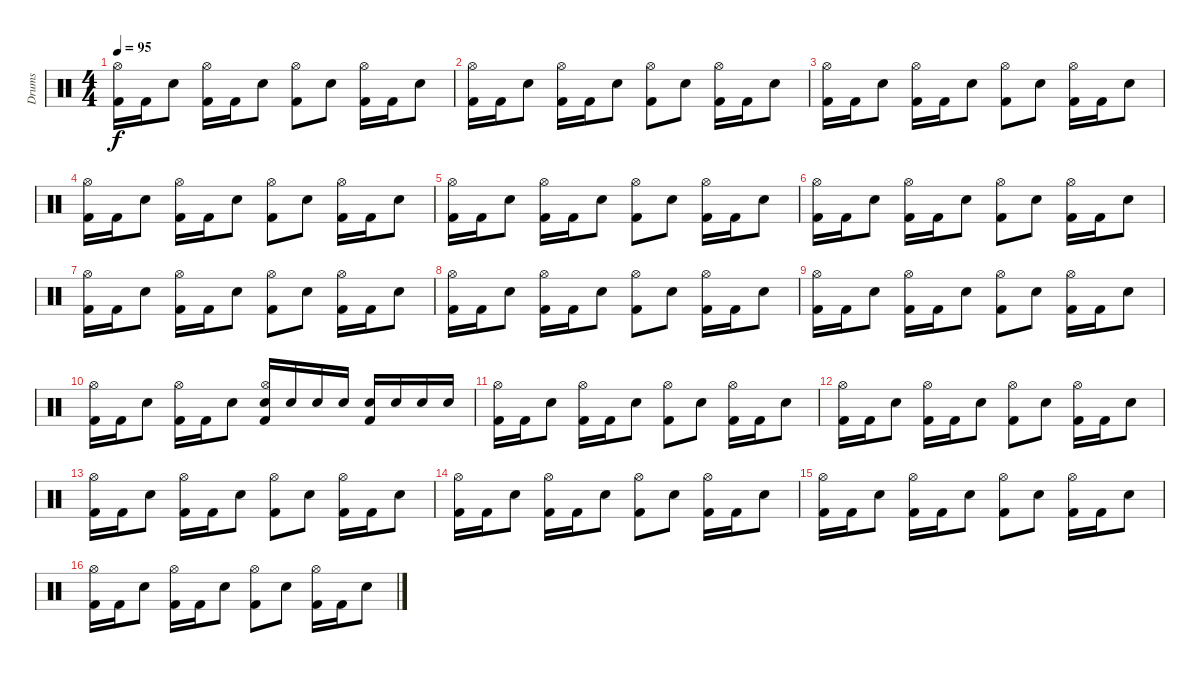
\track ("Drums" "Drums") {instrument percussion}
\staff {score}
\articulation defaults
\ts (4 4)
\tempo 95
\clef neutral
\ks c
("Kick (hit) 2" "Hi-Hat (open)").16{dy f} "Kick (hit) 2".16 "Electric Snare (hit)".8 ("Kick (hit) 2" "Hi-Hat (open)").16 "Kick (hit) 2".16 "Electric Snare (hit)".8 ("Kick (hit) 2" "Hi-Hat (open)").8 "Electric Snare (hit)".8 ("Kick (hit) 2" "Hi-Hat (open)").16 "Kick (hit) 2".16 "Electric Snare (hit)".8 |
("Kick (hit) 2" "Hi-Hat (open)").16 "Kick (hit) 2".16 "Electric Snare (hit)".8 ("Kick (hit) 2" "Hi-Hat (open)").16 "Kick (hit) 2".16 "Electric Snare (hit)".8 ("Kick (hit) 2" "Hi-Hat (open)").8 "Electric Snare (hit)".8 ("Kick (hit) 2" "Hi-Hat (open)").16 "Kick (hit) 2".16 "Electric Snare (hit)".8 |
("Kick (hit) 2" "Hi-Hat (open)").16 "Kick (hit) 2".16 "Electric Snare (hit)".8 ("Kick (hit) 2" "Hi-Hat (open)").16 "Kick (hit) 2".16 "Electric Snare (hit)".8 ("Kick (hit) 2" "Hi-Hat (open)").8 "Electric Snare (hit)".8 ("Kick (hit) 2" "Hi-Hat (open)").16 "Kick (hit) 2".16 "Electric Snare (hit)".8 |
("Kick (hit) 2" "Hi-Hat (open)").16 "Kick (hit) 2".16 "Electric Snare (hit)".8 ("Kick (hit) 2" "Hi-Hat (open)").16 "Kick (hit) 2".16 "Electric Snare (hit)".8 ("Kick (hit) 2" "Hi-Hat (open)").8 "Electric Snare (hit)".8 ("Kick (hit) 2" "Hi-Hat (open)").16 "Kick (hit) 2".16 "Electric Snare (hit)".8 |
("Kick (hit) 2" "Hi-Hat (open)").16 "Kick (hit) 2".16 "Electric Snare (hit)".8 ("Kick (hit) 2" "Hi-Hat (open)").16 "Kick (hit) 2".16 "Electric Snare (hit)".8 ("Kick (hit) 2" "Hi-Hat (open)").8 "Electric Snare (hit)".8 ("Kick (hit) 2" "Hi-Hat (open)").16 "Kick (hit) 2".16 "Electric Snare (hit)".8 |
("Kick (hit) 2" "Hi-Hat (open)").16 "Kick (hit) 2".16 "Electric Snare (hit)".8 ("Kick (hit) 2" "Hi-Hat (open)").16 "Kick (hit) 2".16 "Electric Snare (hit)".8 ("Kick (hit) 2" "Hi-Hat (open)").8 "Electric Snare (hit)".8 ("Kick (hit) 2" "Hi-Hat (open)").16 "Kick (hit) 2".16 "Electric Snare (hit)".8 |
("Kick (hit) 2" "Hi-Hat (open)").16 "Kick (hit) 2".16 "Electric Snare (hit)".8 ("Kick (hit) 2" "Hi-Hat (open)").16 "Kick (hit) 2".16 "Electric Snare (hit)".8 ("Kick (hit) 2" "Hi-Hat (open)").8 "Electric Snare (hit)".8 ("Kick (hit) 2" "Hi-Hat (open)").16 "Kick (hit) 2".16 "Electric Snare (hit)".8 |
("Kick (hit) 2" "Hi-Hat (open)").16 "Kick (hit) 2".16 "Electric Snare (hit)".8 ("Kick (hit) 2" "Hi-Hat (open)").16 "Kick (hit) 2".16 "Electric Snare (hit)".8 ("Kick (hit) 2" "Hi-Hat (open)").8 "Electric Snare (hit)".8 ("Kick (hit) 2" "Hi-Hat (open)").16 "Kick (hit) 2".16 "Electric Snare (hit)".8 |
("Kick (hit) 2" "Hi-Hat (open)").16 "Kick (hit) 2".16 "Electric Snare (hit)".8 ("Kick (hit) 2" "Hi-Hat (open)").16 "Kick (hit) 2".16 "Electric Snare (hit)".8 ("Kick (hit) 2" "Hi-Hat (open)").8 "Electric Snare (hit)".8 ("Kick (hit) 2" "Hi-Hat (open)").16 "Kick (hit) 2".16 "Electric Snare (hit)".8 |
("Kick (hit) 2" "Hi-Hat (open)").16 "Kick (hit) 2".16 "Electric Snare (hit)".8 ("Kick (hit) 2" "Hi-Hat (open)").16 "Kick (hit) 2".16 "Electric Snare (hit)".8 ("Kick (hit) 2" "Electric Snare (hit)" "Hi-Hat (open)").16 "Electric Snare (hit)".16 "Electric Snare (hit)".16 "Electric Snare (hit)".16 ("Kick (hit) 2" "Electric Snare (hit)").16 "Electric Snare (hit)".16 "Electric Snare (hit)".16 "Electric Snare (hit)".16 |
("Kick (hit) 2" "Hi-Hat (open)").16 "Kick (hit) 2".16 "Electric Snare (hit)".8 ("Kick (hit) 2" "Hi-Hat (open)").16 "Kick (hit) 2".16 "Electric Snare (hit)".8 ("Kick (hit) 2" "Hi-Hat (open)").8 "Electric Snare (hit)".8 ("Kick (hit) 2" "Hi-Hat (open)").16 "Kick (hit) 2".16 "Electric Snare (hit)".8 |
("Kick (hit) 2" "Hi-Hat (open)").16 "Kick (hit) 2".16 "Electric Snare (hit)".8 ("Kick (hit) 2" "Hi-Hat (open)").16 "Kick (hit) 2".16 "Electric Snare (hit)".8 ("Kick (hit) 2" "Hi-Hat (open)").8 "Electric Snare (hit)".8 ("Kick (hit) 2" "Hi-Hat (open)").16 "Kick (hit) 2".16 "Electric Snare (hit)".8 |
("Kick (hit) 2" "Hi-Hat (open)").16 "Kick (hit) 2".16 "Electric Snare (hit)".8 ("Kick (hit) 2" "Hi-Hat (open)").16 "Kick (hit) 2".16 "Electric Snare (hit)".8 ("Kick (hit) 2" "Hi-Hat (open)").8 "Electric Snare (hit)".8 ("Kick (hit) 2" "Hi-Hat (open)").16 "Kick (hit) 2".16 "Electric Snare (hit)".8 |
("Kick (hit) 2" "Hi-Hat (open)").16 "Kick (hit) 2".16 "Electric Snare (hit)".8 ("Kick (hit) 2" "Hi-Hat (open)").16 "Kick (hit) 2".16 "Electric Snare (hit)".8 ("Kick (hit) 2" "Hi-Hat (open)").8 "Electric Snare (hit)".8 ("Kick (hit) 2" "Hi-Hat (open)").16 "Kick (hit) 2".16 "Electric Snare (hit)".8 |
("Kick (hit) 2" "Hi-Hat (open)").16 "Kick (hit) 2".16 "Electric Snare (hit)".8 ("Kick (hit) 2" "Hi-Hat (open)").16 "Kick (hit) 2".16 "Electric Snare (hit)".8 ("Kick (hit) 2" "Hi-Hat (open)").8 "Electric Snare (hit)".8 ("Kick (hit) 2" "Hi-Hat (open)").16 "Kick (hit) 2".16 "Electric Snare (hit)".8 |
("Kick (hit) 2" "Hi-Hat (open)").16 "Kick (hit) 2".16 "Electric Snare (hit)".8 ("Kick (hit) 2" "Hi-Hat (open)").16 "Kick (hit) 2".16 "Electric Snare (hit)".8 ("Kick (hit) 2" "Hi-Hat (open)").8 "Electric Snare (hit)".8 ("Kick (hit) 2" "Hi-Hat (open)").16 "Kick (hit) 2".16 "Electric Snare (hit)".8
